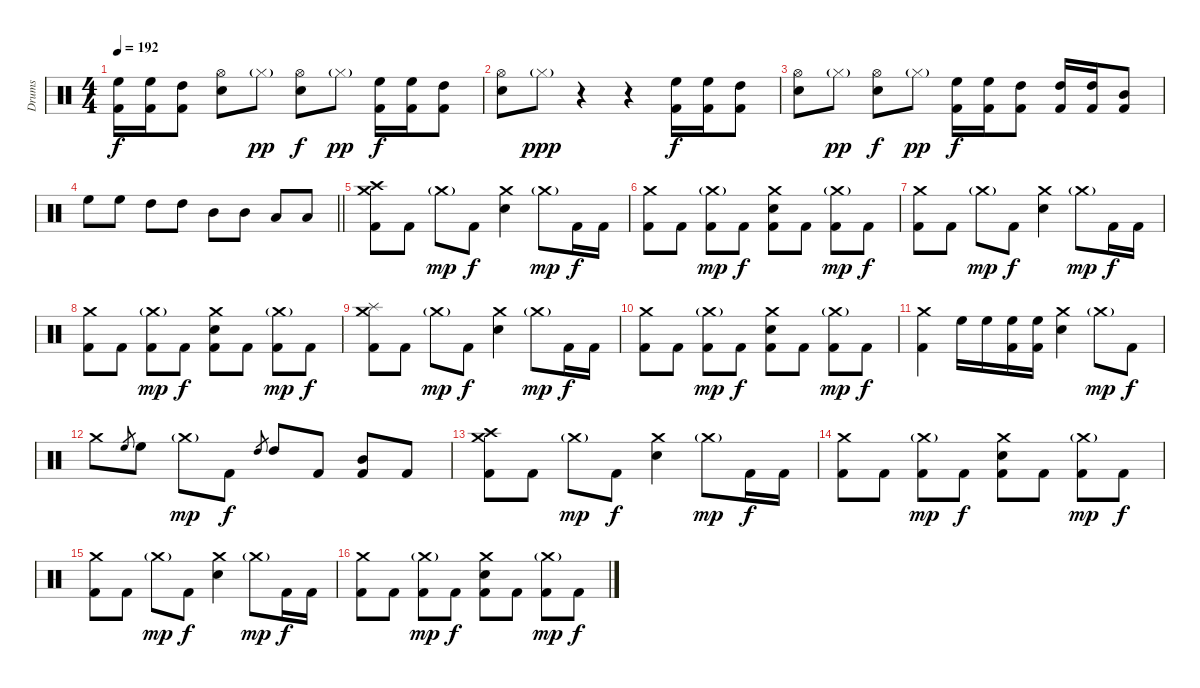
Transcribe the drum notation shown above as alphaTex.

\track ("Drums" "Drums") {instrument percussion}
\staff {score}
\articulation defaults
\ts (4 4)
\tempo 192
\clef neutral
\ks c
("High Floor Tom (hit)" "Kick (hit) 2").16{dy f} ("High Floor Tom (hit)" "Kick (hit) 2").16 ("High Tom (hit)" "Kick (hit) 2").8 ("Hi-Hat (open)" "Electric Snare (hit)").8 "Hi-Hat (closed)"{g}.8{dy pp} ("Hi-Hat (open)" "Electric Snare (hit)").8{dy f} "Hi-Hat (closed)"{g}.8{dy pp} ("High Floor Tom (hit)" "Kick (hit) 2").16{dy f} ("High Floor Tom (hit)" "Kick (hit) 2").16 ("High Tom (hit)" "Kick (hit) 2").8 |
("Hi-Hat (open)" "Electric Snare (hit)").8 "Hi-Hat (closed)"{g}.8{dy ppp} r.4 r.4 ("High Floor Tom (hit)" "Kick (hit) 2").16{dy f} ("High Floor Tom (hit)" "Kick (hit) 2").16 ("High Tom (hit)" "Kick (hit) 2").8 |
("Hi-Hat (open)" "Electric Snare (hit)").8 "Hi-Hat (closed)"{g}.8{dy pp} ("Hi-Hat (open)" "Electric Snare (hit)").8{dy f} "Hi-Hat (closed)"{g}.8{dy pp} ("High Floor Tom (hit)" "Kick (hit) 2").16{dy f} ("High Floor Tom (hit)" "Kick (hit) 2").16 ("High Tom (hit)" "Kick (hit) 2").8 ("High Tom (hit)" "Kick (hit) 2").16 ("High Tom (hit)" "Kick (hit) 2").16 ("Mid Tom (hit)" "Kick (hit) 2").8 |
\barLineRight lightlight "High Floor Tom (hit)".8 "High Floor Tom (hit)".8 "High Tom (hit)".8 "High Tom (hit)".8 "Mid Tom (hit)".8 "Mid Tom (hit)".8 "Low Tom (hit)".8 "Low Tom (hit)".8
|
("Crash high (hit)" "Crash medium (hit)" "Kick (hit) 2").8 "Kick (hit) 2".8 "Crash medium (hit)"{g}.8{dy mp} "Kick (hit) 2".8{dy f} ("Crash medium (hit)" "Electric Snare (hit)").4 "Crash medium (hit)"{g}.8{dy mp} "Kick (hit) 2".16{dy f} "Kick (hit) 2".16 |
("Crash medium (hit)" "Kick (hit) 2").8 "Kick (hit) 2".8 ("Crash medium (hit)"{g} "Kick (hit) 2").8{dy mp} "Kick (hit) 2".8{dy f} ("Crash medium (hit)" "Electric Snare (hit)" "Kick (hit) 2").8 "Kick (hit) 2".8 ("Crash medium (hit)"{g} "Kick (hit) 2").8{dy mp} "Kick (hit) 2".8{dy f} |
("Crash medium (hit)" "Kick (hit) 2").8 "Kick (hit) 2".8 "Crash medium (hit)"{g}.8{dy mp} "Kick (hit) 2".8{dy f} ("Crash medium (hit)" "Electric Snare (hit)").4 "Crash medium (hit)"{g}.8{dy mp} "Kick (hit) 2".16{dy f} "Kick (hit) 2".16 |
("Crash medium (hit)" "Kick (hit) 2").8 "Kick (hit) 2".8 ("Crash medium (hit)"{g} "Kick (hit) 2").8{dy mp} "Kick (hit) 2".8{dy f} ("Crash medium (hit)" "Electric Snare (hit)" "Kick (hit) 2").8 "Kick (hit) 2".8 ("Crash medium (hit)"{g} "Kick (hit) 2").8{dy mp} "Kick (hit) 2".8{dy f} |
("Splash (hit)" "Crash medium (hit)" "Kick (hit) 2").8 "Kick (hit) 2".8 "Crash medium (hit)"{g}.8{dy mp} "Kick (hit) 2".8{dy f} ("Crash medium (hit)" "Electric Snare (hit)").4 "Crash medium (hit)"{g}.8{dy mp} "Kick (hit) 2".16{dy f} "Kick (hit) 2".16 |
("Crash medium (hit)" "Kick (hit) 2").8 "Kick (hit) 2".8 ("Crash medium (hit)"{g} "Kick (hit) 2").8{dy mp} "Kick (hit) 2".8{dy f} ("Crash medium (hit)" "Electric Snare (hit)" "Kick (hit) 2").8 "Kick (hit) 2".8 ("Crash medium (hit)"{g} "Kick (hit) 2").8{dy mp} "Kick (hit) 2".8{dy f} |
("Crash medium (hit)" "Kick (hit) 2").4 "High Floor Tom (hit)".16 "High Floor Tom (hit)".16 ("High Floor Tom (hit)" "Kick (hit) 2").16 ("High Floor Tom (hit)" "Kick (hit) 2").16 ("Crash medium (hit)" "Electric Snare (hit)").4 "Crash medium (hit)"{g}.8{dy mp} "Kick (hit) 2".8{dy f} |
"Crash medium (hit)".8 "High Floor Tom (hit)".8{gr} "High Floor Tom (hit)".8 "Crash medium (hit)"{g}.8{dy mp} "Kick (hit) 2".8{dy f} "High Tom (hit)".8{gr} "High Tom (hit)".8 "Kick (hit) 2".8 ("Mid Tom (hit)" "Kick (hit) 2").8 "Kick (hit) 2".8 |
("Crash high (hit)" "Crash medium (hit)" "Kick (hit) 2").8 "Kick (hit) 2".8 "Crash medium (hit)"{g}.8{dy mp} "Kick (hit) 2".8{dy f} ("Crash medium (hit)" "Electric Snare (hit)").4 "Crash medium (hit)"{g}.8{dy mp} "Kick (hit) 2".16{dy f} "Kick (hit) 2".16 |
("Crash medium (hit)" "Kick (hit) 2").8 "Kick (hit) 2".8 ("Crash medium (hit)"{g} "Kick (hit) 2").8{dy mp} "Kick (hit) 2".8{dy f} ("Crash medium (hit)" "Electric Snare (hit)" "Kick (hit) 2").8 "Kick (hit) 2".8 ("Crash medium (hit)"{g} "Kick (hit) 2").8{dy mp} "Kick (hit) 2".8{dy f} |
("Crash medium (hit)" "Kick (hit) 2").8 "Kick (hit) 2".8 "Crash medium (hit)"{g}.8{dy mp} "Kick (hit) 2".8{dy f} ("Crash medium (hit)" "Electric Snare (hit)").4 "Crash medium (hit)"{g}.8{dy mp} "Kick (hit) 2".16{dy f} "Kick (hit) 2".16 |
("Crash medium (hit)" "Kick (hit) 2").8 "Kick (hit) 2".8 ("Crash medium (hit)"{g} "Kick (hit) 2").8{dy mp} "Kick (hit) 2".8{dy f} ("Crash medium (hit)" "Electric Snare (hit)" "Kick (hit) 2").8 "Kick (hit) 2".8 ("Crash medium (hit)"{g} "Kick (hit) 2").8{dy mp} "Kick (hit) 2".8{dy f}
